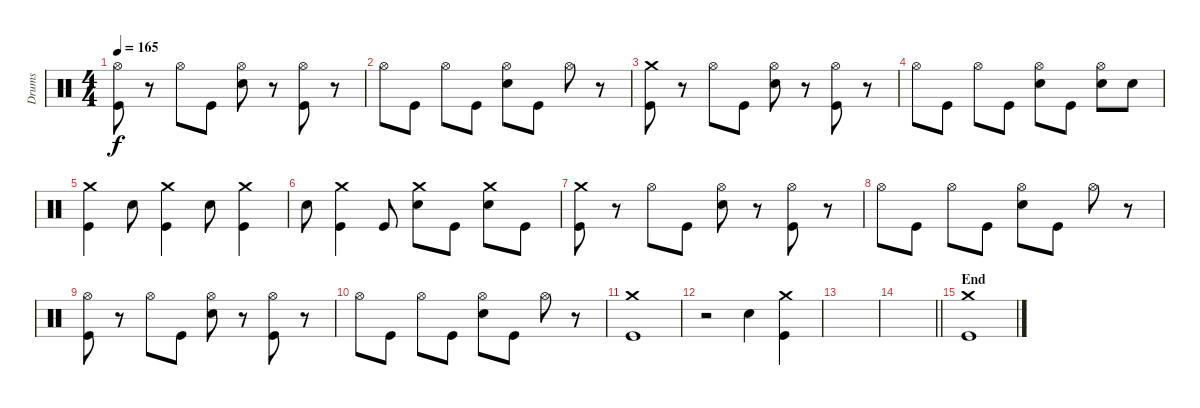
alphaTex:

\track ("Drums" "Drums") {instrument percussion}
\staff {score}
\articulation defaults
\ts (4 4)
\tempo 165
\clef neutral
\ks c
("Hi-Hat (open)" "Kick (hit)").8{dy f} r.8 "Hi-Hat (open)".8 "Kick (hit)".8 ("Hi-Hat (open)" "Electric Snare (hit)").8 r.8 ("Hi-Hat (open)" "Kick (hit)").8 r.8 |
"Hi-Hat (open)".8 "Kick (hit)".8 "Hi-Hat (open)".8 "Kick (hit)".8 ("Hi-Hat (open)" "Electric Snare (hit)").8 "Kick (hit)".8 "Hi-Hat (open)".8 r.8 |
("Crash medium (hit)" "Kick (hit)").8 r.8 "Hi-Hat (open)".8 "Kick (hit)".8 ("Hi-Hat (open)" "Electric Snare (hit)").8 r.8 ("Hi-Hat (open)" "Kick (hit)").8 r.8 |
"Hi-Hat (open)".8 "Kick (hit)".8 "Hi-Hat (open)".8 "Kick (hit)".8 ("Hi-Hat (open)" "Electric Snare (hit)").8 "Kick (hit)".8 ("Hi-Hat (open)" "Electric Snare (hit)").8 "Electric Snare (hit)".8 |
("Crash medium (hit)" "Kick (hit)").4 "Electric Snare (hit)".8 ("Crash medium (hit)" "Kick (hit)").4 "Electric Snare (hit)".8 ("Crash medium (hit)" "Kick (hit)").4 |
"Electric Snare (hit)".8 ("Crash medium (hit)" "Kick (hit)").4 "Kick (hit)".8 ("Crash medium (hit)" "Electric Snare (hit)").8 "Kick (hit)".8 ("Crash medium (hit)" "Electric Snare (hit)").8 "Kick (hit)".8 |
("Crash medium (hit)" "Kick (hit)").8 r.8 "Hi-Hat (open)".8 "Kick (hit)".8 ("Hi-Hat (open)" "Electric Snare (hit)").8 r.8 ("Hi-Hat (open)" "Kick (hit)").8 r.8 |
"Hi-Hat (open)".8 "Kick (hit)".8 "Hi-Hat (open)".8 "Kick (hit)".8 ("Hi-Hat (open)" "Electric Snare (hit)").8 "Kick (hit)".8 "Hi-Hat (open)".8 r.8 |
("Hi-Hat (open)" "Kick (hit)").8 r.8 "Hi-Hat (open)".8 "Kick (hit)".8 ("Hi-Hat (open)" "Electric Snare (hit)").8 r.8 ("Hi-Hat (open)" "Kick (hit)").8 r.8 |
"Hi-Hat (open)".8 "Kick (hit)".8 "Hi-Hat (open)".8 "Kick (hit)".8 ("Hi-Hat (open)" "Electric Snare (hit)").8 "Kick (hit)".8 "Hi-Hat (open)".8 r.8 |
("Crash medium (hit)" "Kick (hit)").1 |
r.2 "Electric Snare (hit)".4 ("Crash medium (hit)" "Kick (hit)").4 |
|
\barLineRight lightlight
|
\section ("" "End")
("Crash medium (hit)" "Kick (hit)").1
